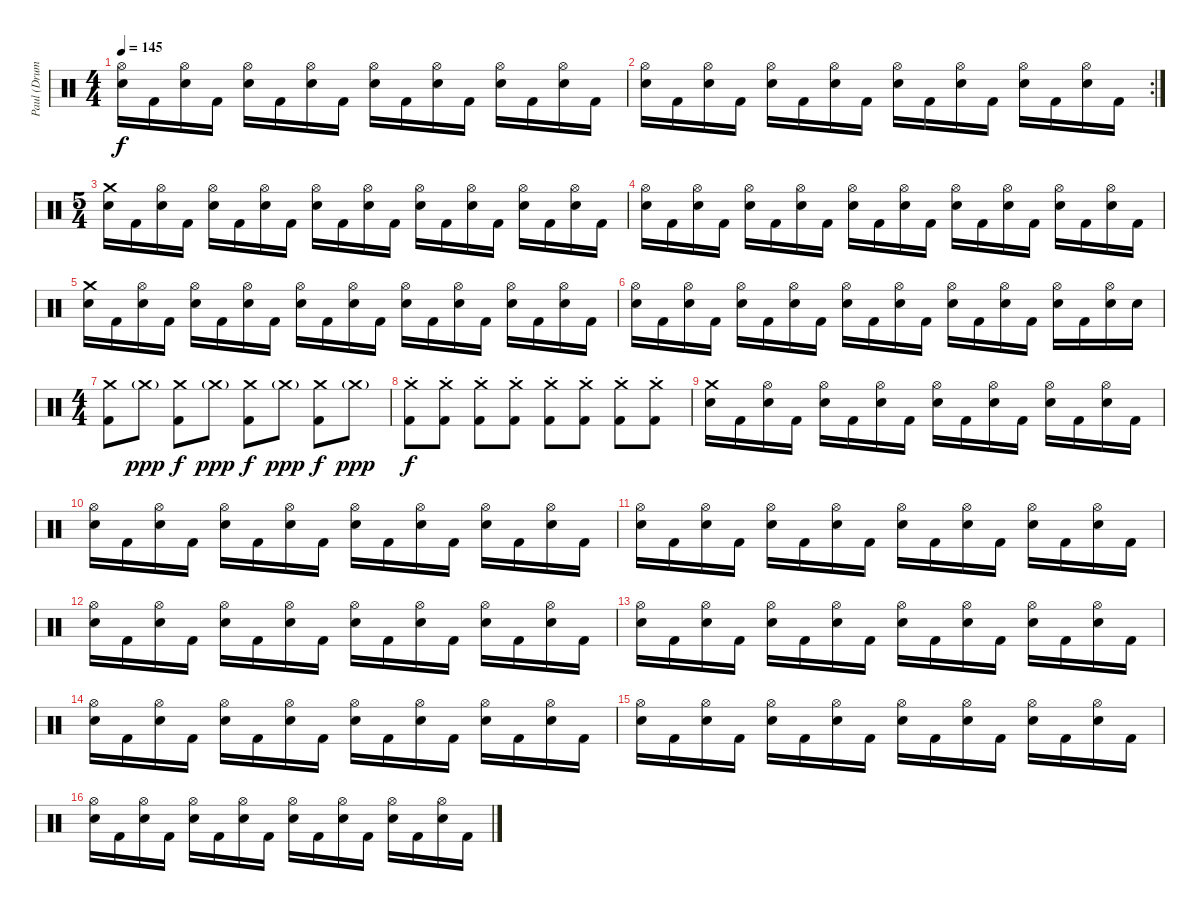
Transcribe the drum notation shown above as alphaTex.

\track ("Paul (Drums)" "Paul (Drum") {instrument percussion}
\staff {score}
\articulation defaults
\ts (4 4)
\tempo 145
\clef neutral
\ks c
("Hi-Hat (open)" "Electric Snare (hit)").16{dy f} "Kick (hit) 2".16 ("Hi-Hat (open)" "Electric Snare (hit)").16 "Kick (hit) 2".16 ("Hi-Hat (open)" "Electric Snare (hit)").16 "Kick (hit) 2".16 ("Hi-Hat (open)" "Electric Snare (hit)").16 "Kick (hit) 2".16 ("Hi-Hat (open)" "Electric Snare (hit)").16 "Kick (hit) 2".16 ("Hi-Hat (open)" "Electric Snare (hit)").16 "Kick (hit) 2".16 ("Hi-Hat (open)" "Electric Snare (hit)").16 "Kick (hit) 2".16 ("Hi-Hat (open)" "Electric Snare (hit)").16 "Kick (hit) 2".16 |
\rc 2
("Hi-Hat (open)" "Electric Snare (hit)").16 "Kick (hit) 2".16 ("Hi-Hat (open)" "Electric Snare (hit)").16 "Kick (hit) 2".16 ("Hi-Hat (open)" "Electric Snare (hit)").16 "Kick (hit) 2".16 ("Hi-Hat (open)" "Electric Snare (hit)").16 "Kick (hit) 2".16 ("Hi-Hat (open)" "Electric Snare (hit)").16 "Kick (hit) 2".16 ("Hi-Hat (open)" "Electric Snare (hit)").16 "Kick (hit) 2".16 ("Hi-Hat (open)" "Electric Snare (hit)").16 "Kick (hit) 2".16 ("Hi-Hat (open)" "Electric Snare (hit)").16 "Kick (hit) 2".16 |
\ts (5 4)
("Crash medium (hit)" "Electric Snare (hit)").16 "Kick (hit) 2".16 ("Hi-Hat (open)" "Electric Snare (hit)").16 "Kick (hit) 2".16 ("Hi-Hat (open)" "Electric Snare (hit)").16 "Kick (hit) 2".16 ("Hi-Hat (open)" "Electric Snare (hit)").16 "Kick (hit) 2".16 ("Hi-Hat (open)" "Electric Snare (hit)").16 "Kick (hit) 2".16 ("Hi-Hat (open)" "Electric Snare (hit)").16 "Kick (hit) 2".16 ("Hi-Hat (open)" "Electric Snare (hit)").16 "Kick (hit) 2".16 ("Hi-Hat (open)" "Electric Snare (hit)").16 "Kick (hit) 2".16 ("Hi-Hat (open)" "Electric Snare (hit)").16 "Kick (hit) 2".16 ("Hi-Hat (open)" "Electric Snare (hit)").16 "Kick (hit) 2".16 |
("Hi-Hat (open)" "Electric Snare (hit)").16 "Kick (hit) 2".16 ("Hi-Hat (open)" "Electric Snare (hit)").16 "Kick (hit) 2".16 ("Hi-Hat (open)" "Electric Snare (hit)").16 "Kick (hit) 2".16 ("Hi-Hat (open)" "Electric Snare (hit)").16 "Kick (hit) 2".16 ("Hi-Hat (open)" "Electric Snare (hit)").16 "Kick (hit) 2".16 ("Hi-Hat (open)" "Electric Snare (hit)").16 "Kick (hit) 2".16 ("Hi-Hat (open)" "Electric Snare (hit)").16 "Kick (hit) 2".16 ("Hi-Hat (open)" "Electric Snare (hit)").16 "Kick (hit) 2".16 ("Hi-Hat (open)" "Electric Snare (hit)").16 "Kick (hit) 2".16 ("Hi-Hat (open)" "Electric Snare (hit)").16 "Kick (hit) 2".16 |
("Crash medium (hit)" "Electric Snare (hit)").16 "Kick (hit) 2".16 ("Hi-Hat (open)" "Electric Snare (hit)").16 "Kick (hit) 2".16 ("Hi-Hat (open)" "Electric Snare (hit)").16 "Kick (hit) 2".16 ("Hi-Hat (open)" "Electric Snare (hit)").16 "Kick (hit) 2".16 ("Hi-Hat (open)" "Electric Snare (hit)").16 "Kick (hit) 2".16 ("Hi-Hat (open)" "Electric Snare (hit)").16 "Kick (hit) 2".16 ("Hi-Hat (open)" "Electric Snare (hit)").16 "Kick (hit) 2".16 ("Hi-Hat (open)" "Electric Snare (hit)").16 "Kick (hit) 2".16 ("Hi-Hat (open)" "Electric Snare (hit)").16 "Kick (hit) 2".16 ("Hi-Hat (open)" "Electric Snare (hit)").16 "Kick (hit) 2".16 |
("Hi-Hat (open)" "Electric Snare (hit)").16 "Kick (hit) 2".16 ("Hi-Hat (open)" "Electric Snare (hit)").16 "Kick (hit) 2".16 ("Hi-Hat (open)" "Electric Snare (hit)").16 "Kick (hit) 2".16 ("Hi-Hat (open)" "Electric Snare (hit)").16 "Kick (hit) 2".16 ("Hi-Hat (open)" "Electric Snare (hit)").16 "Kick (hit) 2".16 ("Hi-Hat (open)" "Electric Snare (hit)").16 "Kick (hit) 2".16 ("Hi-Hat (open)" "Electric Snare (hit)").16 "Kick (hit) 2".16 ("Hi-Hat (open)" "Electric Snare (hit)").16 "Kick (hit) 2".16 ("Hi-Hat (open)" "Electric Snare (hit)").16 "Kick (hit) 2".16 ("Hi-Hat (open)" "Electric Snare (hit)").16 "Snare (hit)".16 |
\ts (4 4)
("Crash medium (hit)" "Kick (hit) 2").8 "Crash medium (hit)"{g}.8{dy ppp} ("Crash medium (hit)" "Kick (hit) 2").8{dy f} "Crash medium (hit)"{g}.8{dy ppp} ("Crash medium (hit)" "Kick (hit) 2").8{dy f} "Crash medium (hit)"{g}.8{dy ppp} ("Crash medium (hit)" "Kick (hit) 2").8{dy f} "Crash medium (hit)"{g}.8{dy ppp} |
("Crash medium (hit)"{st} "Kick (hit) 2").8{dy f} ("Crash medium (hit)"{st} "Kick (hit) 2").8 ("Crash medium (hit)"{st} "Kick (hit) 2").8 ("Crash medium (hit)"{st} "Kick (hit) 2").8 ("Crash medium (hit)"{st} "Kick (hit) 2").8 ("Crash medium (hit)"{st} "Kick (hit) 2").8 ("Crash medium (hit)"{st} "Kick (hit) 2").8 ("Crash medium (hit)"{st} "Kick (hit) 2").8 |
("Crash medium (hit)" "Electric Snare (hit)").16 "Kick (hit) 2".16 ("Hi-Hat (open)" "Electric Snare (hit)").16 "Kick (hit) 2".16 ("Hi-Hat (open)" "Electric Snare (hit)").16 "Kick (hit) 2".16 ("Hi-Hat (open)" "Electric Snare (hit)").16 "Kick (hit) 2".16 ("Hi-Hat (open)" "Electric Snare (hit)").16 "Kick (hit) 2".16 ("Hi-Hat (open)" "Electric Snare (hit)").16 "Kick (hit) 2".16 ("Hi-Hat (open)" "Electric Snare (hit)").16 "Kick (hit) 2".16 ("Hi-Hat (open)" "Electric Snare (hit)").16 "Kick (hit) 2".16 |
("Hi-Hat (open)" "Electric Snare (hit)").16 "Kick (hit) 2".16 ("Hi-Hat (open)" "Electric Snare (hit)").16 "Kick (hit) 2".16 ("Hi-Hat (open)" "Electric Snare (hit)").16 "Kick (hit) 2".16 ("Hi-Hat (open)" "Electric Snare (hit)").16 "Kick (hit) 2".16 ("Hi-Hat (open)" "Electric Snare (hit)").16 "Kick (hit) 2".16 ("Hi-Hat (open)" "Electric Snare (hit)").16 "Kick (hit) 2".16 ("Hi-Hat (open)" "Electric Snare (hit)").16 "Kick (hit) 2".16 ("Hi-Hat (open)" "Electric Snare (hit)").16 "Kick (hit) 2".16 |
("Hi-Hat (open)" "Electric Snare (hit)").16 "Kick (hit) 2".16 ("Hi-Hat (open)" "Electric Snare (hit)").16 "Kick (hit) 2".16 ("Hi-Hat (open)" "Electric Snare (hit)").16 "Kick (hit) 2".16 ("Hi-Hat (open)" "Electric Snare (hit)").16 "Kick (hit) 2".16 ("Hi-Hat (open)" "Electric Snare (hit)").16 "Kick (hit) 2".16 ("Hi-Hat (open)" "Electric Snare (hit)").16 "Kick (hit) 2".16 ("Hi-Hat (open)" "Electric Snare (hit)").16 "Kick (hit) 2".16 ("Hi-Hat (open)" "Electric Snare (hit)").16 "Kick (hit) 2".16 |
("Hi-Hat (open)" "Electric Snare (hit)").16 "Kick (hit) 2".16 ("Hi-Hat (open)" "Electric Snare (hit)").16 "Kick (hit) 2".16 ("Hi-Hat (open)" "Electric Snare (hit)").16 "Kick (hit) 2".16 ("Hi-Hat (open)" "Electric Snare (hit)").16 "Kick (hit) 2".16 ("Hi-Hat (open)" "Electric Snare (hit)").16 "Kick (hit) 2".16 ("Hi-Hat (open)" "Electric Snare (hit)").16 "Kick (hit) 2".16 ("Hi-Hat (open)" "Electric Snare (hit)").16 "Kick (hit) 2".16 ("Hi-Hat (open)" "Electric Snare (hit)").16 "Kick (hit) 2".16 |
("Hi-Hat (open)" "Electric Snare (hit)").16 "Kick (hit) 2".16 ("Hi-Hat (open)" "Electric Snare (hit)").16 "Kick (hit) 2".16 ("Hi-Hat (open)" "Electric Snare (hit)").16 "Kick (hit) 2".16 ("Hi-Hat (open)" "Electric Snare (hit)").16 "Kick (hit) 2".16 ("Hi-Hat (open)" "Electric Snare (hit)").16 "Kick (hit) 2".16 ("Hi-Hat (open)" "Electric Snare (hit)").16 "Kick (hit) 2".16 ("Hi-Hat (open)" "Electric Snare (hit)").16 "Kick (hit) 2".16 ("Hi-Hat (open)" "Electric Snare (hit)").16 "Kick (hit) 2".16 |
("Hi-Hat (open)" "Electric Snare (hit)").16 "Kick (hit) 2".16 ("Hi-Hat (open)" "Electric Snare (hit)").16 "Kick (hit) 2".16 ("Hi-Hat (open)" "Electric Snare (hit)").16 "Kick (hit) 2".16 ("Hi-Hat (open)" "Electric Snare (hit)").16 "Kick (hit) 2".16 ("Hi-Hat (open)" "Electric Snare (hit)").16 "Kick (hit) 2".16 ("Hi-Hat (open)" "Electric Snare (hit)").16 "Kick (hit) 2".16 ("Hi-Hat (open)" "Electric Snare (hit)").16 "Kick (hit) 2".16 ("Hi-Hat (open)" "Electric Snare (hit)").16 "Kick (hit) 2".16 |
("Hi-Hat (open)" "Electric Snare (hit)").16 "Kick (hit) 2".16 ("Hi-Hat (open)" "Electric Snare (hit)").16 "Kick (hit) 2".16 ("Hi-Hat (open)" "Electric Snare (hit)").16 "Kick (hit) 2".16 ("Hi-Hat (open)" "Electric Snare (hit)").16 "Kick (hit) 2".16 ("Hi-Hat (open)" "Electric Snare (hit)").16 "Kick (hit) 2".16 ("Hi-Hat (open)" "Electric Snare (hit)").16 "Kick (hit) 2".16 ("Hi-Hat (open)" "Electric Snare (hit)").16 "Kick (hit) 2".16 ("Hi-Hat (open)" "Electric Snare (hit)").16 "Kick (hit) 2".16 |
("Hi-Hat (open)" "Electric Snare (hit)").16 "Kick (hit) 2".16 ("Hi-Hat (open)" "Electric Snare (hit)").16 "Kick (hit) 2".16 ("Hi-Hat (open)" "Electric Snare (hit)").16 "Kick (hit) 2".16 ("Hi-Hat (open)" "Electric Snare (hit)").16 "Kick (hit) 2".16 ("Hi-Hat (open)" "Electric Snare (hit)").16 "Kick (hit) 2".16 ("Hi-Hat (open)" "Electric Snare (hit)").16 "Kick (hit) 2".16 ("Hi-Hat (open)" "Electric Snare (hit)").16 "Kick (hit) 2".16 ("Hi-Hat (open)" "Electric Snare (hit)").16 "Kick (hit) 2".16
